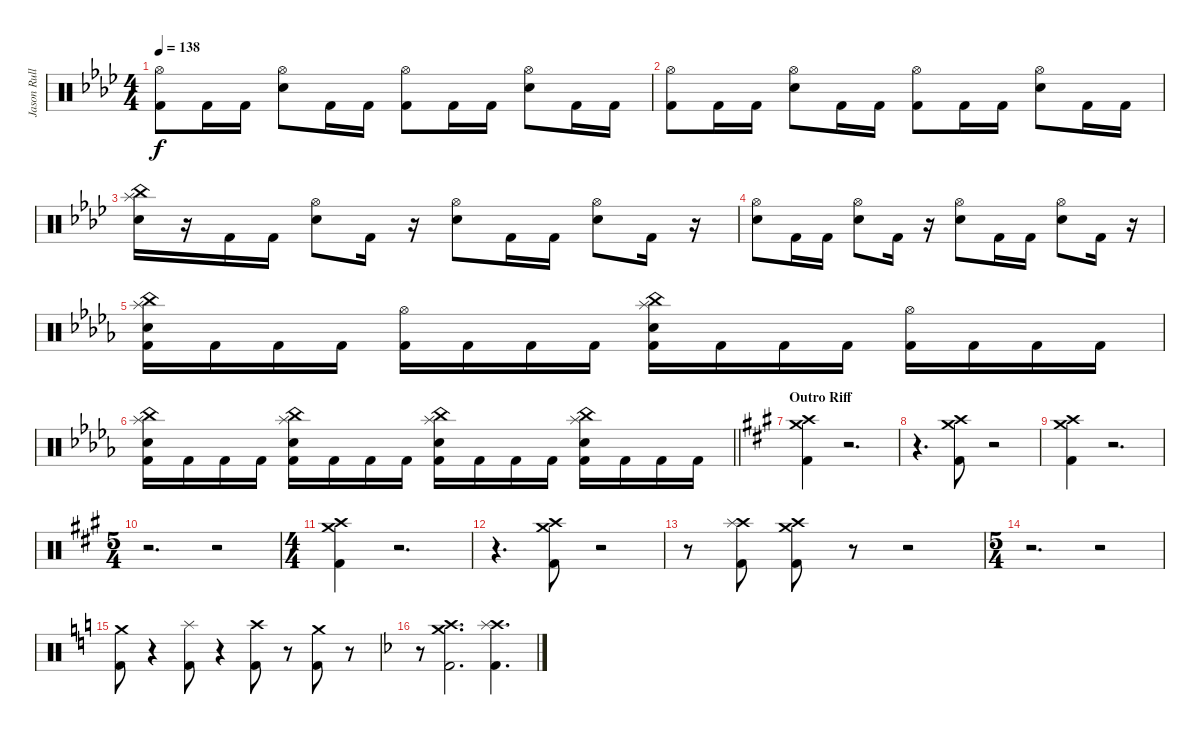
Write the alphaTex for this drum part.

\track ("Jason Rullo (drums)" "Jason Rull") {instrument percussion}
\staff {score}
\articulation defaults
\ts (4 4)
\tempo 138
\clef neutral
\ks fminor
("Hi-Hat (open)" "Kick (hit) 2").8{dy f} "Kick (hit) 2".16 "Kick (hit) 2".16 ("Hi-Hat (open)" "Electric Snare (hit)").8 "Kick (hit) 2".16 "Kick (hit) 2".16 ("Hi-Hat (open)" "Kick (hit) 2").8 "Kick (hit) 2".16 "Kick (hit) 2".16 ("Hi-Hat (open)" "Electric Snare (hit)").8 "Kick (hit) 2".16 "Kick (hit) 2".16 |
("Hi-Hat (open)" "Kick (hit) 2").8 "Kick (hit) 2".16 "Kick (hit) 2".16 ("Hi-Hat (open)" "Electric Snare (hit)").8 "Kick (hit) 2".16 "Kick (hit) 2".16 ("Hi-Hat (open)" "Kick (hit) 2").8 "Kick (hit) 2".16 "Kick (hit) 2".16 ("Hi-Hat (open)" "Electric Snare (hit)").8 "Kick (hit) 2".16 "Kick (hit) 2".16 |
("Splash (hit)" "China (hit)" "Electric Snare (hit)").16 r.16 "Kick (hit) 2".16 "Kick (hit) 2".16 ("Hi-Hat (open)" "Electric Snare (hit)").8 "Kick (hit) 2".16 r.16 ("Hi-Hat (open)" "Electric Snare (hit)").8 "Kick (hit) 2".16 "Kick (hit) 2".16 ("Hi-Hat (open)" "Electric Snare (hit)").8 "Kick (hit) 2".16 r.16 |
("Hi-Hat (open)" "Electric Snare (hit)").8 "Kick (hit) 2".16 "Kick (hit) 2".16 ("Hi-Hat (open)" "Electric Snare (hit)").8 "Kick (hit) 2".16 r.16 ("Hi-Hat (open)" "Electric Snare (hit)").8 "Kick (hit) 2".16 "Kick (hit) 2".16 ("Hi-Hat (open)" "Electric Snare (hit)").8 "Kick (hit) 2".16 r.16 |
\ks bbminor
("Kick (hit) 2" "China (hit)" "Splash (hit)" "Electric Snare (hit)").16 "Kick (hit) 2".16 "Kick (hit) 2".16 "Kick (hit) 2".16 ("Kick (hit) 2" "Hi-Hat (open)").16 "Kick (hit) 2".16 "Kick (hit) 2".16 "Kick (hit) 2".16 ("Kick (hit) 2" "China (hit)" "Splash (hit)" "Electric Snare (hit)").16 "Kick (hit) 2".16 "Kick (hit) 2".16 "Kick (hit) 2".16 ("Kick (hit) 2" "Hi-Hat (open)").16 "Kick (hit) 2".16 "Kick (hit) 2".16 "Kick (hit) 2".16 |
\barLineRight lightlight
("Kick (hit) 2" "China (hit)" "Splash (hit)" "Electric Snare (hit)").16 "Kick (hit) 2".16 "Kick (hit) 2".16 "Kick (hit) 2".16 ("Splash (hit)" "China (hit)" "Electric Snare (hit)" "Kick (hit) 2").16 "Kick (hit) 2".16 "Kick (hit) 2".16 "Kick (hit) 2".16 ("Kick (hit) 2" "China (hit)" "Splash (hit)" "Electric Snare (hit)").16 "Kick (hit) 2".16 "Kick (hit) 2".16 "Kick (hit) 2".16 ("Splash (hit)" "China (hit)" "Electric Snare (hit)" "Kick (hit) 2").16 "Kick (hit) 2".16 "Kick (hit) 2".16 "Kick (hit) 2".16 |
\section ("" "Outro Riff")
\ks f#minor
("Crash high (hit)" "Crash medium (hit)" "Kick (hit) 2").4 r.2{d} |
r.4{d} ("Crash medium (hit)" "Crash high (hit)" "Kick (hit) 2").8 r.2 |
("Crash high (hit)" "Crash medium (hit)" "Kick (hit) 2").4 r.2{d} |
\ts (5 4)
r.2{d} r.2 |
\ts (4 4)
("Crash high (hit)" "Crash medium (hit)" "Kick (hit) 2").4 r.2{d} |
r.4{d} ("Crash medium (hit)" "Crash high (hit)" "Kick (hit) 2").8 r.2 |
r.8 ("Crash high (hit)" "Splash (hit)" "Kick (hit) 2").8 ("Crash high (hit)" "Crash medium (hit)" "Kick (hit) 2").8 r.8 r.2 |
\ts (5 4)
r.2{d} r.2 |
\ks aminor
("Crash medium (hit)" "Kick (hit) 2").8 r.4 ("Splash (hit)" "Kick (hit) 2").8 r.4 ("Crash high (hit)" "Kick (hit) 2").8 r.8 ("Crash medium (hit)" "Kick (hit) 2").8 r.8 |
\ks dminor
r.8 ("Crash high (hit)" "Crash medium (hit)" "Kick (hit) 2").2{d} ("Crash high (hit)" "Splash (hit)" "Kick (hit) 2").4{d}
